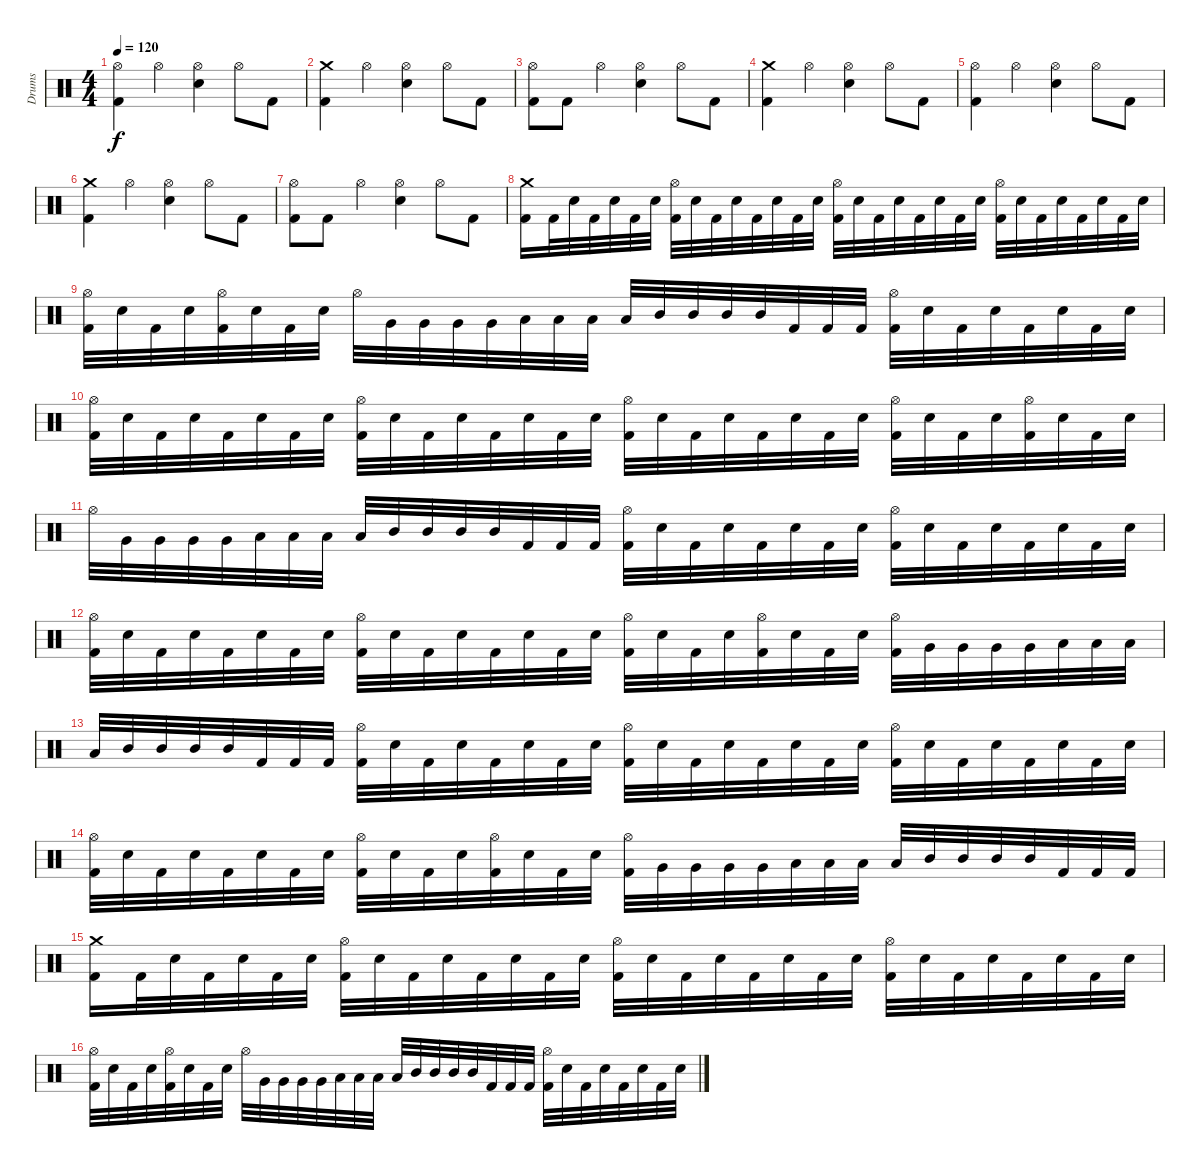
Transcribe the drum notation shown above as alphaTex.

\track ("Drums" "Drums") {instrument percussion}
\staff {score}
\articulation defaults
\ts (4 4)
\tempo 120
\clef neutral
\ks c
("Hi-Hat (open)" "Kick (hit) 2").4{dy f} "Hi-Hat (open)".4 ("Hi-Hat (open)" "Electric Snare (hit)").4 "Hi-Hat (open)".8 "Kick (hit) 2".8 |
("Crash medium (hit)" "Kick (hit) 2").4 "Hi-Hat (open)".4 ("Hi-Hat (open)" "Electric Snare (hit)").4 "Hi-Hat (open)".8 "Kick (hit) 2".8 |
("Hi-Hat (open)" "Kick (hit) 2").8 "Kick (hit) 2".8 "Hi-Hat (open)".4 ("Hi-Hat (open)" "Electric Snare (hit)").4 "Hi-Hat (open)".8 "Kick (hit) 2".8 |
("Crash medium (hit)" "Kick (hit) 2").4 "Hi-Hat (open)".4 ("Hi-Hat (open)" "Electric Snare (hit)").4 "Hi-Hat (open)".8 "Kick (hit) 2".8 |
("Hi-Hat (open)" "Kick (hit) 2").4 "Hi-Hat (open)".4 ("Hi-Hat (open)" "Electric Snare (hit)").4 "Hi-Hat (open)".8 "Kick (hit) 2".8 |
("Crash medium (hit)" "Kick (hit) 2").4 "Hi-Hat (open)".4 ("Hi-Hat (open)" "Electric Snare (hit)").4 "Hi-Hat (open)".8 "Kick (hit) 2".8 |
("Hi-Hat (open)" "Kick (hit) 2").8 "Kick (hit) 2".8 "Hi-Hat (open)".4 ("Hi-Hat (open)" "Electric Snare (hit)").4 "Hi-Hat (open)".8 "Kick (hit) 2".8 |
("Kick (hit) 2" "Crash medium (hit)").16 "Kick (hit) 2".32 "Electric Snare (hit)".32 "Kick (hit) 2".32 "Electric Snare (hit)".32 "Kick (hit) 2".32 "Electric Snare (hit)".32 ("Kick (hit) 2" "Hi-Hat (open)").32 "Electric Snare (hit)".32 "Kick (hit) 2".32 "Electric Snare (hit)".32 "Kick (hit) 2".32 "Electric Snare (hit)".32 "Kick (hit) 2".32 "Electric Snare (hit)".32 ("Kick (hit) 2" "Hi-Hat (open)").32 "Electric Snare (hit)".32 "Kick (hit) 2".32 "Electric Snare (hit)".32 "Kick (hit) 2".32 "Electric Snare (hit)".32 "Kick (hit) 2".32 "Electric Snare (hit)".32 ("Kick (hit) 2" "Hi-Hat (open)").32 "Electric Snare (hit)".32 "Kick (hit) 2".32 "Electric Snare (hit)".32 "Kick (hit) 2".32 "Electric Snare (hit)".32 "Kick (hit) 2".32 "Electric Snare (hit)".32 |
("Kick (hit) 2" "Hi-Hat (open)").32 "Electric Snare (hit)".32 "Kick (hit) 2".32 "Electric Snare (hit)".32 ("Kick (hit) 2" "Hi-Hat (open)").32 "Electric Snare (hit)".32 "Kick (hit) 2".32 "Electric Snare (hit)".32 "Hi-Hat (open)".32 "Very Low Tom (hit)".32 "Very Low Tom (hit)".32 "Very Low Tom (hit)".32 "Very Low Tom (hit)".32 "Low Tom (hit)".32 "Low Tom (hit)".32 "Low Tom (hit)".32 "Low Tom (hit)".32 "Mid Tom (hit)".32 "Mid Tom (hit)".32 "Mid Tom (hit)".32 "Mid Tom (hit)".32 "Kick (hit) 2".32 "Kick (hit) 2".32 "Kick (hit) 2".32 ("Kick (hit) 2" "Hi-Hat (open)").32 "Electric Snare (hit)".32 "Kick (hit) 2".32 "Electric Snare (hit)".32 "Kick (hit) 2".32 "Electric Snare (hit)".32 "Kick (hit) 2".32 "Electric Snare (hit)".32 |
("Kick (hit) 2" "Hi-Hat (open)").32 "Electric Snare (hit)".32 "Kick (hit) 2".32 "Electric Snare (hit)".32 "Kick (hit) 2".32 "Electric Snare (hit)".32 "Kick (hit) 2".32 "Electric Snare (hit)".32 ("Kick (hit) 2" "Hi-Hat (open)").32 "Electric Snare (hit)".32 "Kick (hit) 2".32 "Electric Snare (hit)".32 "Kick (hit) 2".32 "Electric Snare (hit)".32 "Kick (hit) 2".32 "Electric Snare (hit)".32 ("Kick (hit) 2" "Hi-Hat (open)").32 "Electric Snare (hit)".32 "Kick (hit) 2".32 "Electric Snare (hit)".32 "Kick (hit) 2".32 "Electric Snare (hit)".32 "Kick (hit) 2".32 "Electric Snare (hit)".32 ("Kick (hit) 2" "Hi-Hat (open)").32 "Electric Snare (hit)".32 "Kick (hit) 2".32 "Electric Snare (hit)".32 ("Kick (hit) 2" "Hi-Hat (open)").32 "Electric Snare (hit)".32 "Kick (hit) 2".32 "Electric Snare (hit)".32 |
"Hi-Hat (open)".32 "Very Low Tom (hit)".32 "Very Low Tom (hit)".32 "Very Low Tom (hit)".32 "Very Low Tom (hit)".32 "Low Tom (hit)".32 "Low Tom (hit)".32 "Low Tom (hit)".32 "Low Tom (hit)".32 "Mid Tom (hit)".32 "Mid Tom (hit)".32 "Mid Tom (hit)".32 "Mid Tom (hit)".32 "Kick (hit) 2".32 "Kick (hit) 2".32 "Kick (hit) 2".32 ("Kick (hit) 2" "Hi-Hat (open)").32 "Electric Snare (hit)".32 "Kick (hit) 2".32 "Electric Snare (hit)".32 "Kick (hit) 2".32 "Electric Snare (hit)".32 "Kick (hit) 2".32 "Electric Snare (hit)".32 ("Kick (hit) 2" "Hi-Hat (open)").32 "Electric Snare (hit)".32 "Kick (hit) 2".32 "Electric Snare (hit)".32 "Kick (hit) 2".32 "Electric Snare (hit)".32 "Kick (hit) 2".32 "Electric Snare (hit)".32 |
("Kick (hit) 2" "Hi-Hat (open)").32 "Electric Snare (hit)".32 "Kick (hit) 2".32 "Electric Snare (hit)".32 "Kick (hit) 2".32 "Electric Snare (hit)".32 "Kick (hit) 2".32 "Electric Snare (hit)".32 ("Kick (hit) 2" "Hi-Hat (open)").32 "Electric Snare (hit)".32 "Kick (hit) 2".32 "Electric Snare (hit)".32 "Kick (hit) 2".32 "Electric Snare (hit)".32 "Kick (hit) 2".32 "Electric Snare (hit)".32 ("Kick (hit) 2" "Hi-Hat (open)").32 "Electric Snare (hit)".32 "Kick (hit) 2".32 "Electric Snare (hit)".32 ("Kick (hit) 2" "Hi-Hat (open)").32 "Electric Snare (hit)".32 "Kick (hit) 2".32 "Electric Snare (hit)".32 ("Kick (hit) 2" "Hi-Hat (open)").32 "Very Low Tom (hit)".32 "Very Low Tom (hit)".32 "Very Low Tom (hit)".32 "Very Low Tom (hit)".32 "Low Tom (hit)".32 "Low Tom (hit)".32 "Low Tom (hit)".32 |
"Low Tom (hit)".32 "Mid Tom (hit)".32 "Mid Tom (hit)".32 "Mid Tom (hit)".32 "Mid Tom (hit)".32 "Kick (hit) 2".32 "Kick (hit) 2".32 "Kick (hit) 2".32 ("Kick (hit) 2" "Hi-Hat (open)").32 "Electric Snare (hit)".32 "Kick (hit) 2".32 "Electric Snare (hit)".32 "Kick (hit) 2".32 "Electric Snare (hit)".32 "Kick (hit) 2".32 "Electric Snare (hit)".32 ("Kick (hit) 2" "Hi-Hat (open)").32 "Electric Snare (hit)".32 "Kick (hit) 2".32 "Electric Snare (hit)".32 "Kick (hit) 2".32 "Electric Snare (hit)".32 "Kick (hit) 2".32 "Electric Snare (hit)".32 ("Kick (hit) 2" "Hi-Hat (open)").32 "Electric Snare (hit)".32 "Kick (hit) 2".32 "Electric Snare (hit)".32 "Kick (hit) 2".32 "Electric Snare (hit)".32 "Kick (hit) 2".32 "Electric Snare (hit)".32 |
("Kick (hit) 2" "Hi-Hat (open)").32 "Electric Snare (hit)".32 "Kick (hit) 2".32 "Electric Snare (hit)".32 "Kick (hit) 2".32 "Electric Snare (hit)".32 "Kick (hit) 2".32 "Electric Snare (hit)".32 ("Kick (hit) 2" "Hi-Hat (open)").32 "Electric Snare (hit)".32 "Kick (hit) 2".32 "Electric Snare (hit)".32 ("Kick (hit) 2" "Hi-Hat (open)").32 "Electric Snare (hit)".32 "Kick (hit) 2".32 "Electric Snare (hit)".32 ("Kick (hit) 2" "Hi-Hat (open)").32 "Very Low Tom (hit)".32 "Very Low Tom (hit)".32 "Very Low Tom (hit)".32 "Very Low Tom (hit)".32 "Low Tom (hit)".32 "Low Tom (hit)".32 "Low Tom (hit)".32 "Low Tom (hit)".32 "Mid Tom (hit)".32 "Mid Tom (hit)".32 "Mid Tom (hit)".32 "Mid Tom (hit)".32 "Kick (hit) 2".32 "Kick (hit) 2".32 "Kick (hit) 2".32 |
("Kick (hit) 2" "Crash medium (hit)").16 "Kick (hit) 2".32 "Electric Snare (hit)".32 "Kick (hit) 2".32 "Electric Snare (hit)".32 "Kick (hit) 2".32 "Electric Snare (hit)".32 ("Kick (hit) 2" "Hi-Hat (open)").32 "Electric Snare (hit)".32 "Kick (hit) 2".32 "Electric Snare (hit)".32 "Kick (hit) 2".32 "Electric Snare (hit)".32 "Kick (hit) 2".32 "Electric Snare (hit)".32 ("Kick (hit) 2" "Hi-Hat (open)").32 "Electric Snare (hit)".32 "Kick (hit) 2".32 "Electric Snare (hit)".32 "Kick (hit) 2".32 "Electric Snare (hit)".32 "Kick (hit) 2".32 "Electric Snare (hit)".32 ("Kick (hit) 2" "Hi-Hat (open)").32 "Electric Snare (hit)".32 "Kick (hit) 2".32 "Electric Snare (hit)".32 "Kick (hit) 2".32 "Electric Snare (hit)".32 "Kick (hit) 2".32 "Electric Snare (hit)".32 |
("Kick (hit) 2" "Hi-Hat (open)").32 "Electric Snare (hit)".32 "Kick (hit) 2".32 "Electric Snare (hit)".32 ("Kick (hit) 2" "Hi-Hat (open)").32 "Electric Snare (hit)".32 "Kick (hit) 2".32 "Electric Snare (hit)".32 "Hi-Hat (open)".32 "Very Low Tom (hit)".32 "Very Low Tom (hit)".32 "Very Low Tom (hit)".32 "Very Low Tom (hit)".32 "Low Tom (hit)".32 "Low Tom (hit)".32 "Low Tom (hit)".32 "Low Tom (hit)".32 "Mid Tom (hit)".32 "Mid Tom (hit)".32 "Mid Tom (hit)".32 "Mid Tom (hit)".32 "Kick (hit) 2".32 "Kick (hit) 2".32 "Kick (hit) 2".32 ("Kick (hit) 2" "Hi-Hat (open)").32 "Electric Snare (hit)".32 "Kick (hit) 2".32 "Electric Snare (hit)".32 "Kick (hit) 2".32 "Electric Snare (hit)".32 "Kick (hit) 2".32 "Electric Snare (hit)".32
